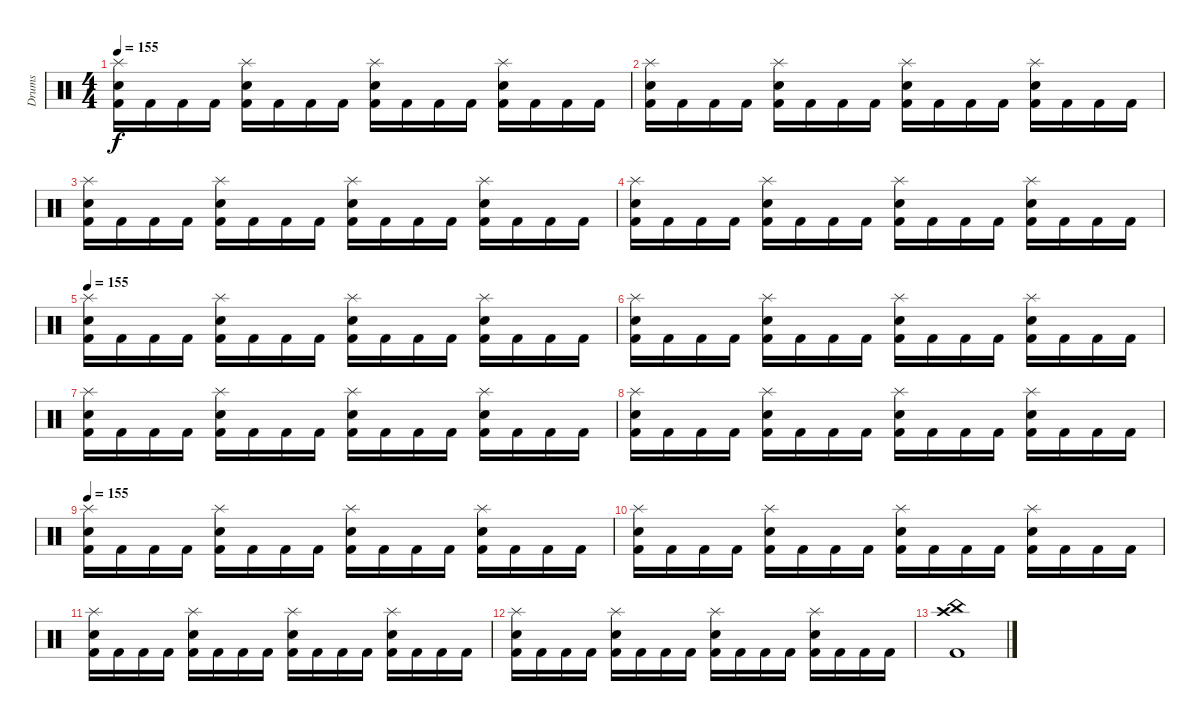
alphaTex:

\track ("Drums" "Drums") {instrument percussion}
\staff {score}
\articulation defaults
\ts (4 4)
\tempo 155
\clef neutral
\ks c
("Kick (hit) 2" "Snare (hit) 2" "Splash (hit)").16{dy f} "Kick (hit) 2".16 "Kick (hit) 2".16 "Kick (hit) 2".16 ("Kick (hit) 2" "Snare (hit) 2" "Splash (hit)").16 "Kick (hit) 2".16 "Kick (hit) 2".16 "Kick (hit) 2".16 ("Kick (hit) 2" "Snare (hit) 2" "Splash (hit)").16 "Kick (hit) 2".16 "Kick (hit) 2".16 "Kick (hit) 2".16 ("Kick (hit) 2" "Snare (hit) 2" "Splash (hit)").16 "Kick (hit) 2".16 "Kick (hit) 2".16 "Kick (hit) 2".16 |
("Kick (hit) 2" "Snare (hit) 2" "Splash (hit)").16 "Kick (hit) 2".16 "Kick (hit) 2".16 "Kick (hit) 2".16 ("Kick (hit) 2" "Snare (hit) 2" "Splash (hit)").16 "Kick (hit) 2".16 "Kick (hit) 2".16 "Kick (hit) 2".16 ("Kick (hit) 2" "Snare (hit) 2" "Splash (hit)").16 "Kick (hit) 2".16 "Kick (hit) 2".16 "Kick (hit) 2".16 ("Kick (hit) 2" "Snare (hit) 2" "Splash (hit)").16 "Kick (hit) 2".16 "Kick (hit) 2".16 "Kick (hit) 2".16 |
("Kick (hit) 2" "Snare (hit) 2" "Splash (hit)").16 "Kick (hit) 2".16 "Kick (hit) 2".16 "Kick (hit) 2".16 ("Kick (hit) 2" "Snare (hit) 2" "Splash (hit)").16 "Kick (hit) 2".16 "Kick (hit) 2".16 "Kick (hit) 2".16 ("Kick (hit) 2" "Snare (hit) 2" "Splash (hit)").16 "Kick (hit) 2".16 "Kick (hit) 2".16 "Kick (hit) 2".16 ("Kick (hit) 2" "Snare (hit) 2" "Splash (hit)").16 "Kick (hit) 2".16 "Kick (hit) 2".16 "Kick (hit) 2".16 |
("Kick (hit) 2" "Snare (hit) 2" "Splash (hit)").16 "Kick (hit) 2".16 "Kick (hit) 2".16 "Kick (hit) 2".16 ("Kick (hit) 2" "Snare (hit) 2" "Splash (hit)").16 "Kick (hit) 2".16 "Kick (hit) 2".16 "Kick (hit) 2".16 ("Kick (hit) 2" "Snare (hit) 2" "Splash (hit)").16 "Kick (hit) 2".16 "Kick (hit) 2".16 "Kick (hit) 2".16 ("Kick (hit) 2" "Snare (hit) 2" "Splash (hit)").16 "Kick (hit) 2".16 "Kick (hit) 2".16 "Kick (hit) 2".16 |
\tempo 155
("Kick (hit) 2" "Snare (hit) 2" "Splash (hit)").16 "Kick (hit) 2".16 "Kick (hit) 2".16 "Kick (hit) 2".16 ("Kick (hit) 2" "Snare (hit) 2" "Splash (hit)").16 "Kick (hit) 2".16 "Kick (hit) 2".16 "Kick (hit) 2".16 ("Kick (hit) 2" "Snare (hit) 2" "Splash (hit)").16 "Kick (hit) 2".16 "Kick (hit) 2".16 "Kick (hit) 2".16 ("Kick (hit) 2" "Snare (hit) 2" "Splash (hit)").16 "Kick (hit) 2".16 "Kick (hit) 2".16 "Kick (hit) 2".16 |
("Kick (hit) 2" "Snare (hit) 2" "Splash (hit)").16 "Kick (hit) 2".16 "Kick (hit) 2".16 "Kick (hit) 2".16 ("Kick (hit) 2" "Snare (hit) 2" "Splash (hit)").16 "Kick (hit) 2".16 "Kick (hit) 2".16 "Kick (hit) 2".16 ("Kick (hit) 2" "Snare (hit) 2" "Splash (hit)").16 "Kick (hit) 2".16 "Kick (hit) 2".16 "Kick (hit) 2".16 ("Kick (hit) 2" "Snare (hit) 2" "Splash (hit)").16 "Kick (hit) 2".16 "Kick (hit) 2".16 "Kick (hit) 2".16 |
("Kick (hit) 2" "Snare (hit) 2" "Splash (hit)").16 "Kick (hit) 2".16 "Kick (hit) 2".16 "Kick (hit) 2".16 ("Kick (hit) 2" "Snare (hit) 2" "Splash (hit)").16 "Kick (hit) 2".16 "Kick (hit) 2".16 "Kick (hit) 2".16 ("Kick (hit) 2" "Snare (hit) 2" "Splash (hit)").16 "Kick (hit) 2".16 "Kick (hit) 2".16 "Kick (hit) 2".16 ("Kick (hit) 2" "Snare (hit) 2" "Splash (hit)").16 "Kick (hit) 2".16 "Kick (hit) 2".16 "Kick (hit) 2".16 |
("Kick (hit) 2" "Snare (hit) 2" "Splash (hit)").16 "Kick (hit) 2".16 "Kick (hit) 2".16 "Kick (hit) 2".16 ("Kick (hit) 2" "Snare (hit) 2" "Splash (hit)").16 "Kick (hit) 2".16 "Kick (hit) 2".16 "Kick (hit) 2".16 ("Kick (hit) 2" "Snare (hit) 2" "Splash (hit)").16 "Kick (hit) 2".16 "Kick (hit) 2".16 "Kick (hit) 2".16 ("Kick (hit) 2" "Snare (hit) 2" "Splash (hit)").16 "Kick (hit) 2".16 "Kick (hit) 2".16 "Kick (hit) 2".16 |
\tempo 155
("Kick (hit) 2" "Snare (hit) 2" "Splash (hit)").16 "Kick (hit) 2".16 "Kick (hit) 2".16 "Kick (hit) 2".16 ("Kick (hit) 2" "Snare (hit) 2" "Splash (hit)").16 "Kick (hit) 2".16 "Kick (hit) 2".16 "Kick (hit) 2".16 ("Kick (hit) 2" "Snare (hit) 2" "Splash (hit)").16 "Kick (hit) 2".16 "Kick (hit) 2".16 "Kick (hit) 2".16 ("Kick (hit) 2" "Snare (hit) 2" "Splash (hit)").16 "Kick (hit) 2".16 "Kick (hit) 2".16 "Kick (hit) 2".16 |
("Kick (hit) 2" "Snare (hit) 2" "Splash (hit)").16 "Kick (hit) 2".16 "Kick (hit) 2".16 "Kick (hit) 2".16 ("Kick (hit) 2" "Snare (hit) 2" "Splash (hit)").16 "Kick (hit) 2".16 "Kick (hit) 2".16 "Kick (hit) 2".16 ("Kick (hit) 2" "Snare (hit) 2" "Splash (hit)").16 "Kick (hit) 2".16 "Kick (hit) 2".16 "Kick (hit) 2".16 ("Kick (hit) 2" "Snare (hit) 2" "Splash (hit)").16 "Kick (hit) 2".16 "Kick (hit) 2".16 "Kick (hit) 2".16 |
("Kick (hit) 2" "Snare (hit) 2" "Splash (hit)").16 "Kick (hit) 2".16 "Kick (hit) 2".16 "Kick (hit) 2".16 ("Kick (hit) 2" "Snare (hit) 2" "Splash (hit)").16 "Kick (hit) 2".16 "Kick (hit) 2".16 "Kick (hit) 2".16 ("Kick (hit) 2" "Snare (hit) 2" "Splash (hit)").16 "Kick (hit) 2".16 "Kick (hit) 2".16 "Kick (hit) 2".16 ("Kick (hit) 2" "Snare (hit) 2" "Splash (hit)").16 "Kick (hit) 2".16 "Kick (hit) 2".16 "Kick (hit) 2".16 |
("Kick (hit) 2" "Snare (hit) 2" "Splash (hit)").16 "Kick (hit) 2".16 "Kick (hit) 2".16 "Kick (hit) 2".16 ("Kick (hit) 2" "Snare (hit) 2" "Splash (hit)").16 "Kick (hit) 2".16 "Kick (hit) 2".16 "Kick (hit) 2".16 ("Kick (hit) 2" "Snare (hit) 2" "Splash (hit)").16 "Kick (hit) 2".16 "Kick (hit) 2".16 "Kick (hit) 2".16 ("Kick (hit) 2" "Snare (hit) 2" "Splash (hit)").16 "Kick (hit) 2".16 "Kick (hit) 2".16 "Kick (hit) 2".16 |
("Kick (hit) 2" "Crash high (hit)" "China (hit)").1
